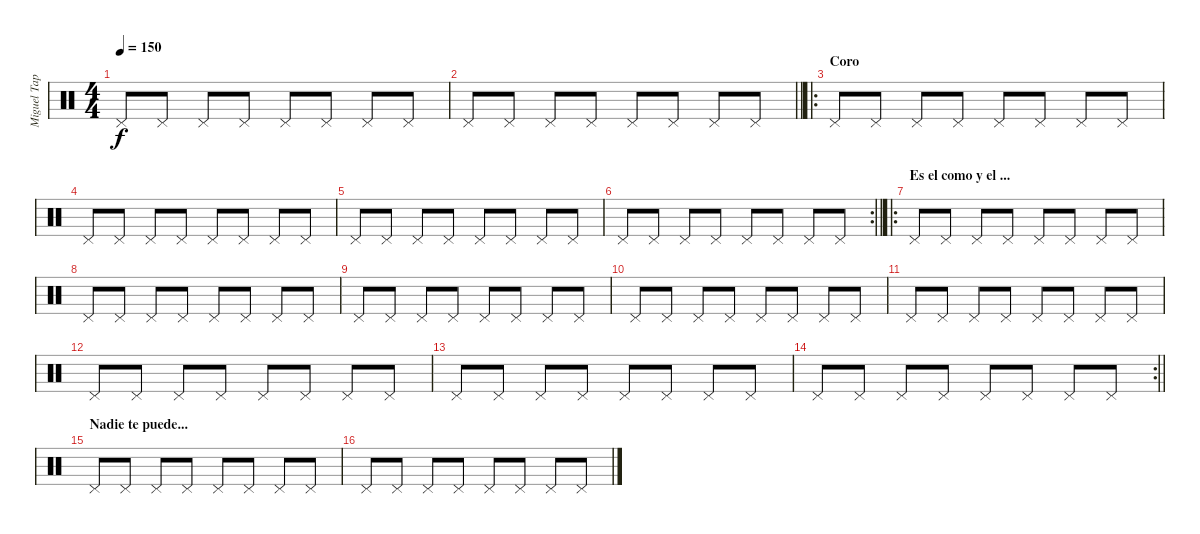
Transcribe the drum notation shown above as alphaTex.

\track ("Miguel Tapia" "Miguel Tap") {instrument percussion}
\staff {score}
\articulation defaults
\ts (4 4)
\tempo 150
\clef neutral
\ks c "Pedal Hi-Hat (hit)".8{dy f} "Pedal Hi-Hat (hit)".8 "Pedal Hi-Hat (hit)".8 "Pedal Hi-Hat (hit)".8 "Pedal Hi-Hat (hit)".8 "Pedal Hi-Hat (hit)".8 "Pedal Hi-Hat (hit)".8 "Pedal Hi-Hat (hit)".8
|
\barLineRight lightlight "Pedal Hi-Hat (hit)".8 "Pedal Hi-Hat (hit)".8 "Pedal Hi-Hat (hit)".8 "Pedal Hi-Hat (hit)".8 "Pedal Hi-Hat (hit)".8 "Pedal Hi-Hat (hit)".8 "Pedal Hi-Hat (hit)".8 "Pedal Hi-Hat (hit)".8
|
\ro
\section ("" "Coro")
"Pedal Hi-Hat (hit)".8 "Pedal Hi-Hat (hit)".8 "Pedal Hi-Hat (hit)".8 "Pedal Hi-Hat (hit)".8 "Pedal Hi-Hat (hit)".8 "Pedal Hi-Hat (hit)".8 "Pedal Hi-Hat (hit)".8 "Pedal Hi-Hat (hit)".8 |
"Pedal Hi-Hat (hit)".8 "Pedal Hi-Hat (hit)".8 "Pedal Hi-Hat (hit)".8 "Pedal Hi-Hat (hit)".8 "Pedal Hi-Hat (hit)".8 "Pedal Hi-Hat (hit)".8 "Pedal Hi-Hat (hit)".8 "Pedal Hi-Hat (hit)".8 |
"Pedal Hi-Hat (hit)".8 "Pedal Hi-Hat (hit)".8 "Pedal Hi-Hat (hit)".8 "Pedal Hi-Hat (hit)".8 "Pedal Hi-Hat (hit)".8 "Pedal Hi-Hat (hit)".8 "Pedal Hi-Hat (hit)".8 "Pedal Hi-Hat (hit)".8 |
\rc 2
\barLineRight lightlight "Pedal Hi-Hat (hit)".8 "Pedal Hi-Hat (hit)".8 "Pedal Hi-Hat (hit)".8 "Pedal Hi-Hat (hit)".8 "Pedal Hi-Hat (hit)".8 "Pedal Hi-Hat (hit)".8 "Pedal Hi-Hat (hit)".8 "Pedal Hi-Hat (hit)".8
|
\ro
\section ("" "Es el como y el ...")
"Pedal Hi-Hat (hit)".8 "Pedal Hi-Hat (hit)".8 "Pedal Hi-Hat (hit)".8 "Pedal Hi-Hat (hit)".8 "Pedal Hi-Hat (hit)".8 "Pedal Hi-Hat (hit)".8 "Pedal Hi-Hat (hit)".8 "Pedal Hi-Hat (hit)".8 |
"Pedal Hi-Hat (hit)".8 "Pedal Hi-Hat (hit)".8 "Pedal Hi-Hat (hit)".8 "Pedal Hi-Hat (hit)".8 "Pedal Hi-Hat (hit)".8 "Pedal Hi-Hat (hit)".8 "Pedal Hi-Hat (hit)".8 "Pedal Hi-Hat (hit)".8 |
"Pedal Hi-Hat (hit)".8 "Pedal Hi-Hat (hit)".8 "Pedal Hi-Hat (hit)".8 "Pedal Hi-Hat (hit)".8 "Pedal Hi-Hat (hit)".8 "Pedal Hi-Hat (hit)".8 "Pedal Hi-Hat (hit)".8 "Pedal Hi-Hat (hit)".8 |
"Pedal Hi-Hat (hit)".8 "Pedal Hi-Hat (hit)".8 "Pedal Hi-Hat (hit)".8 "Pedal Hi-Hat (hit)".8 "Pedal Hi-Hat (hit)".8 "Pedal Hi-Hat (hit)".8 "Pedal Hi-Hat (hit)".8 "Pedal Hi-Hat (hit)".8 |
"Pedal Hi-Hat (hit)".8 "Pedal Hi-Hat (hit)".8 "Pedal Hi-Hat (hit)".8 "Pedal Hi-Hat (hit)".8 "Pedal Hi-Hat (hit)".8 "Pedal Hi-Hat (hit)".8 "Pedal Hi-Hat (hit)".8 "Pedal Hi-Hat (hit)".8 |
"Pedal Hi-Hat (hit)".8 "Pedal Hi-Hat (hit)".8 "Pedal Hi-Hat (hit)".8 "Pedal Hi-Hat (hit)".8 "Pedal Hi-Hat (hit)".8 "Pedal Hi-Hat (hit)".8 "Pedal Hi-Hat (hit)".8 "Pedal Hi-Hat (hit)".8 |
"Pedal Hi-Hat (hit)".8 "Pedal Hi-Hat (hit)".8 "Pedal Hi-Hat (hit)".8 "Pedal Hi-Hat (hit)".8 "Pedal Hi-Hat (hit)".8 "Pedal Hi-Hat (hit)".8 "Pedal Hi-Hat (hit)".8 "Pedal Hi-Hat (hit)".8 |
\rc 2
\barLineRight lightlight "Pedal Hi-Hat (hit)".8 "Pedal Hi-Hat (hit)".8 "Pedal Hi-Hat (hit)".8 "Pedal Hi-Hat (hit)".8 "Pedal Hi-Hat (hit)".8 "Pedal Hi-Hat (hit)".8 "Pedal Hi-Hat (hit)".8 "Pedal Hi-Hat (hit)".8
|
\section ("" "Nadie te puede...")
"Pedal Hi-Hat (hit)".8 "Pedal Hi-Hat (hit)".8 "Pedal Hi-Hat (hit)".8 "Pedal Hi-Hat (hit)".8 "Pedal Hi-Hat (hit)".8 "Pedal Hi-Hat (hit)".8 "Pedal Hi-Hat (hit)".8 "Pedal Hi-Hat (hit)".8 |
"Pedal Hi-Hat (hit)".8 "Pedal Hi-Hat (hit)".8 "Pedal Hi-Hat (hit)".8 "Pedal Hi-Hat (hit)".8 "Pedal Hi-Hat (hit)".8 "Pedal Hi-Hat (hit)".8 "Pedal Hi-Hat (hit)".8 "Pedal Hi-Hat (hit)".8
